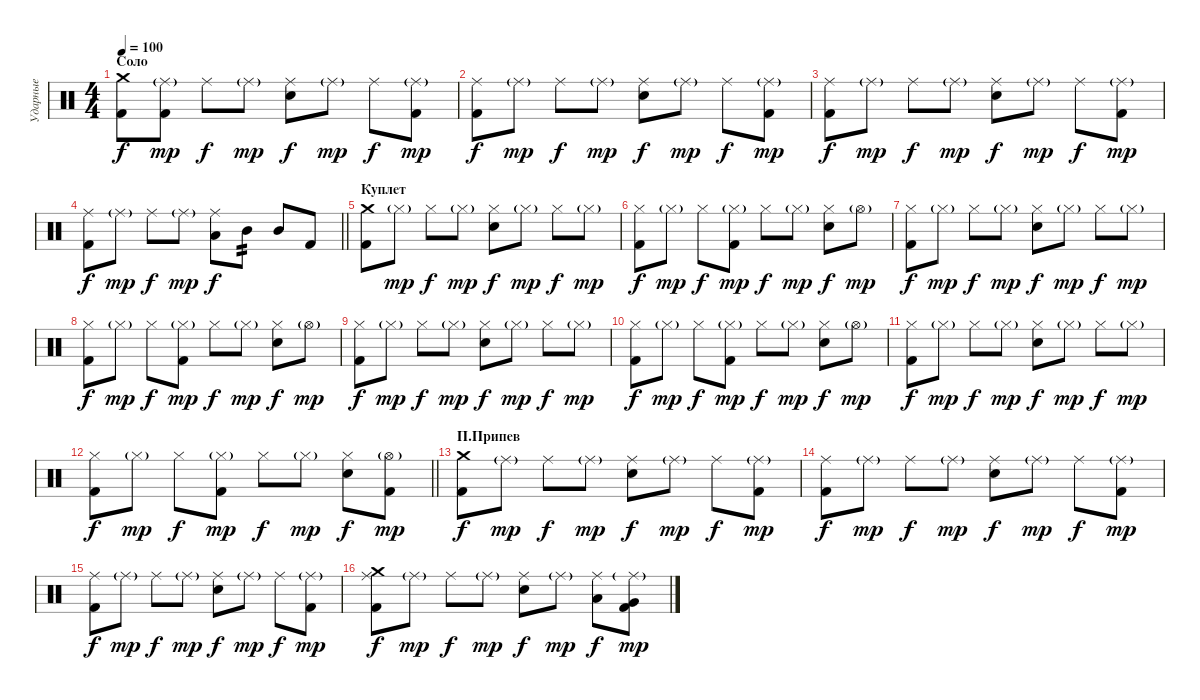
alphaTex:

\track ("Ударные" "Ударные") {instrument percussion}
\staff {score}
\articulation defaults
\ts (4 4)
\section ("" "Соло")
\tempo 100
\clef neutral
\ks c
("Crash medium (hit)" "Kick (hit) 2").8{dy f} ("Ride (middle)"{g} "Kick (hit) 2").8{dy mp} "Ride (middle)".8{dy f} "Ride (middle)"{g}.8{dy mp} ("Ride (middle)" "Snare (hit) 2").8{dy f} "Ride (middle)"{g}.8{dy mp} "Ride (middle)".8{dy f} ("Ride (middle)"{g} "Kick (hit) 2").8{dy mp} |
("Ride (middle)" "Kick (hit) 2").8{dy f} "Ride (middle)"{g}.8{dy mp} "Ride (middle)".8{dy f} "Ride (middle)"{g}.8{dy mp} ("Ride (middle)" "Snare (hit) 2").8{dy f} "Ride (middle)"{g}.8{dy mp} "Ride (middle)".8{dy f} ("Ride (middle)"{g} "Kick (hit) 2").8{dy mp} |
("Ride (middle)" "Kick (hit) 2").8{dy f} "Ride (middle)"{g}.8{dy mp} "Ride (middle)".8{dy f} "Ride (middle)"{g}.8{dy mp} ("Ride (middle)" "Snare (hit) 2").8{dy f} "Ride (middle)"{g}.8{dy mp} "Ride (middle)".8{dy f} ("Ride (middle)"{g} "Kick (hit) 2").8{dy mp} |
\barLineRight lightlight
("Ride (middle)" "Kick (hit) 2").8{dy f} "Ride (middle)"{g}.8{dy mp} "Ride (middle)".8{dy f} "Ride (middle)"{g}.8{dy mp} ("Ride (middle)" "Low Tom (hit)").8{dy f} "Mid Tom (hit)".8{tp 2} "Mid Tom (hit)".8 "Kick (hit) 2".8 |
\section ("" "Куплет")
("Crash medium (hit)" "Kick (hit) 2").8 "Hi-Hat (closed)"{g}.8{dy mp} "Hi-Hat (closed)".8{dy f} "Hi-Hat (closed)"{g}.8{dy mp} ("Snare (hit) 2" "Hi-Hat (closed)").8{dy f} "Hi-Hat (closed)"{g}.8{dy mp} "Hi-Hat (closed)".8{dy f} "Hi-Hat (closed)"{g}.8{dy mp} |
("Kick (hit) 2" "Hi-Hat (closed)").8{dy f} "Hi-Hat (closed)"{g}.8{dy mp} "Hi-Hat (closed)".8{dy f} ("Kick (hit) 2" "Hi-Hat (closed)"{g}).8{dy mp} "Hi-Hat (closed)".8{dy f} "Hi-Hat (closed)"{g}.8{dy mp} ("Snare (hit) 2" "Hi-Hat (closed)").8{dy f} "Hi-Hat (open)"{g}.8{dy mp} |
("Kick (hit) 2" "Hi-Hat (closed)").8{dy f} "Hi-Hat (closed)"{g}.8{dy mp} "Hi-Hat (closed)".8{dy f} "Hi-Hat (closed)"{g}.8{dy mp} ("Snare (hit) 2" "Hi-Hat (closed)").8{dy f} "Hi-Hat (closed)"{g}.8{dy mp} "Hi-Hat (closed)".8{dy f} "Hi-Hat (closed)"{g}.8{dy mp} |
("Kick (hit) 2" "Hi-Hat (closed)").8{dy f} "Hi-Hat (closed)"{g}.8{dy mp} "Hi-Hat (closed)".8{dy f} ("Kick (hit) 2" "Hi-Hat (closed)"{g}).8{dy mp} "Hi-Hat (closed)".8{dy f} "Hi-Hat (closed)"{g}.8{dy mp} ("Snare (hit) 2" "Hi-Hat (closed)").8{dy f} "Hi-Hat (open)"{g}.8{dy mp} |
("Kick (hit) 2" "Hi-Hat (closed)").8{dy f} "Hi-Hat (closed)"{g}.8{dy mp} "Hi-Hat (closed)".8{dy f} "Hi-Hat (closed)"{g}.8{dy mp} ("Snare (hit) 2" "Hi-Hat (closed)").8{dy f} "Hi-Hat (closed)"{g}.8{dy mp} "Hi-Hat (closed)".8{dy f} "Hi-Hat (closed)"{g}.8{dy mp} |
("Kick (hit) 2" "Hi-Hat (closed)").8{dy f} "Hi-Hat (closed)"{g}.8{dy mp} "Hi-Hat (closed)".8{dy f} ("Kick (hit) 2" "Hi-Hat (closed)"{g}).8{dy mp} "Hi-Hat (closed)".8{dy f} "Hi-Hat (closed)"{g}.8{dy mp} ("Snare (hit) 2" "Hi-Hat (closed)").8{dy f} "Hi-Hat (open)"{g}.8{dy mp} |
("Kick (hit) 2" "Hi-Hat (closed)").8{dy f} "Hi-Hat (closed)"{g}.8{dy mp} "Hi-Hat (closed)".8{dy f} "Hi-Hat (closed)"{g}.8{dy mp} ("Snare (hit) 2" "Hi-Hat (closed)").8{dy f} "Hi-Hat (closed)"{g}.8{dy mp} "Hi-Hat (closed)".8{dy f} "Hi-Hat (closed)"{g}.8{dy mp} |
\barLineRight lightlight
("Kick (hit) 2" "Hi-Hat (closed)").8{dy f} "Hi-Hat (closed)"{g}.8{dy mp} "Hi-Hat (closed)".8{dy f} ("Kick (hit) 2" "Hi-Hat (closed)"{g}).8{dy mp} "Hi-Hat (closed)".8{dy f} "Hi-Hat (closed)"{g}.8{dy mp} ("Snare (hit) 2" "Hi-Hat (closed)").8{dy f} ("Kick (hit) 2" "Hi-Hat (open)"{g}).8{dy mp} |
\section ("" "П.Припев")
("Crash medium (hit)" "Kick (hit) 2").8{dy f} "Ride (middle)"{g}.8{dy mp} "Ride (middle)".8{dy f} "Ride (middle)"{g}.8{dy mp} ("Ride (middle)" "Snare (hit) 2").8{dy f} "Ride (middle)"{g}.8{dy mp} "Ride (middle)".8{dy f} ("Ride (middle)"{g} "Kick (hit) 2").8{dy mp} |
("Ride (middle)" "Kick (hit) 2").8{dy f} "Ride (middle)"{g}.8{dy mp} "Ride (middle)".8{dy f} "Ride (middle)"{g}.8{dy mp} ("Ride (middle)" "Snare (hit) 2").8{dy f} "Ride (middle)"{g}.8{dy mp} "Ride (middle)".8{dy f} ("Ride (middle)"{g} "Kick (hit) 2").8{dy mp} |
("Ride (middle)" "Kick (hit) 2").8{dy f} "Ride (middle)"{g}.8{dy mp} "Ride (middle)".8{dy f} "Ride (middle)"{g}.8{dy mp} ("Ride (middle)" "Snare (hit) 2").8{dy f} "Ride (middle)"{g}.8{dy mp} "Ride (middle)".8{dy f} ("Ride (middle)"{g} "Kick (hit) 2").8{dy mp} |
("Ride (middle)" "Crash medium (hit)" "Kick (hit) 2").8{dy f} "Ride (middle)"{g}.8{dy mp} "Ride (middle)".8{dy f} "Ride (middle)"{g}.8{dy mp} ("Ride (middle)" "Snare (hit) 2").8{dy f} "Ride (middle)"{g}.8{dy mp} ("Ride (middle)" "Low Tom (hit)").8{dy f} ("Ride (middle)"{g} "Very Low Tom (hit)" "Kick (hit) 2").8{dy mp}
